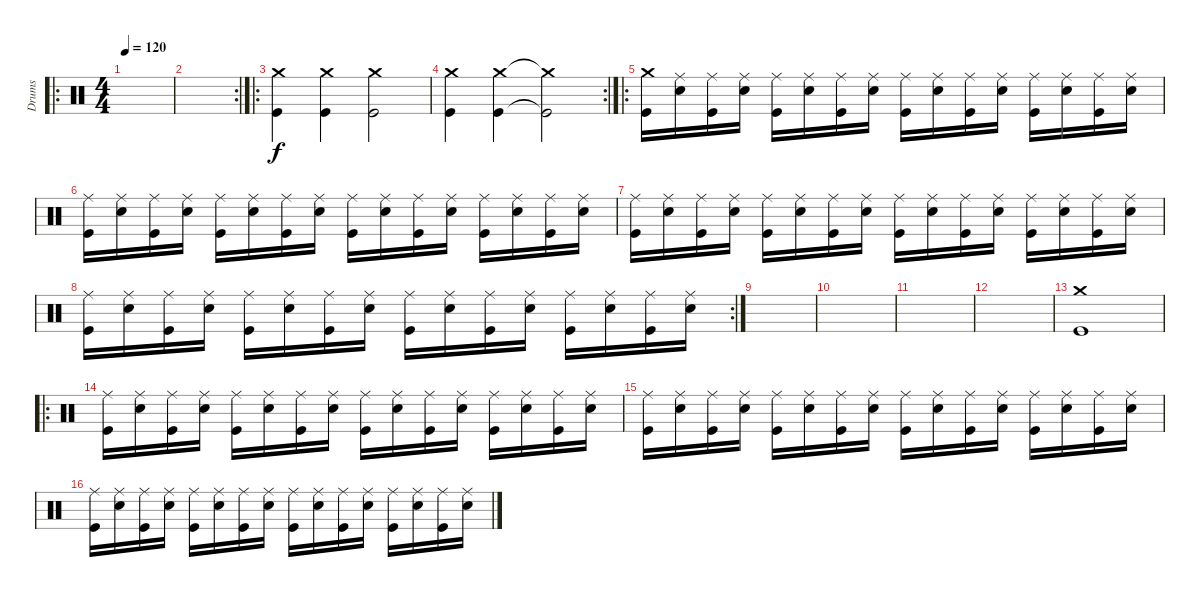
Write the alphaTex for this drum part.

\track ("Drums" "Drums") {instrument percussion}
\staff {score}
\articulation defaults
\ro
\ts (4 4)
\tempo 120
\clef neutral
\ks c
|
\rc 2
|
\ro
("Crash medium (hit)" "Kick (hit)").4 ("Crash medium (hit)" "Kick (hit)").4 ("Crash medium (hit)" "Kick (hit)").2 |
\rc 2
("Crash medium (hit)" "Kick (hit)").4 ("Crash medium (hit)" "Kick (hit)").4 ("Crash medium (hit)"{t} "Kick (hit)"{t}).2 |
\ro
("Crash medium (hit)" "Kick (hit)").16 ("Ride (middle)" "Snare (hit) 2").16 ("Ride (middle)" "Kick (hit)").16 ("Ride (middle)" "Snare (hit) 2").16 ("Ride (middle)" "Kick (hit)").16 ("Ride (middle)" "Snare (hit) 2").16 ("Ride (middle)" "Kick (hit)").16 ("Ride (middle)" "Snare (hit) 2").16 ("Ride (middle)" "Kick (hit)").16 ("Ride (middle)" "Snare (hit) 2").16 ("Ride (middle)" "Kick (hit)").16 ("Ride (middle)" "Snare (hit) 2").16 ("Ride (middle)" "Kick (hit)").16 ("Ride (middle)" "Snare (hit) 2").16 ("Ride (middle)" "Kick (hit)").16 ("Ride (middle)" "Snare (hit) 2").16 |
("Ride (middle)" "Kick (hit)").16 ("Ride (middle)" "Snare (hit) 2").16 ("Ride (middle)" "Kick (hit)").16 ("Ride (middle)" "Snare (hit) 2").16 ("Ride (middle)" "Kick (hit)").16 ("Ride (middle)" "Snare (hit) 2").16 ("Ride (middle)" "Kick (hit)").16 ("Ride (middle)" "Snare (hit) 2").16 ("Ride (middle)" "Kick (hit)").16 ("Ride (middle)" "Snare (hit) 2").16 ("Ride (middle)" "Kick (hit)").16 ("Ride (middle)" "Snare (hit) 2").16 ("Ride (middle)" "Kick (hit)").16 ("Ride (middle)" "Snare (hit) 2").16 ("Ride (middle)" "Kick (hit)").16 ("Ride (middle)" "Snare (hit) 2").16 |
("Ride (middle)" "Kick (hit)").16 ("Ride (middle)" "Snare (hit) 2").16 ("Ride (middle)" "Kick (hit)").16 ("Ride (middle)" "Snare (hit) 2").16 ("Ride (middle)" "Kick (hit)").16 ("Ride (middle)" "Snare (hit) 2").16 ("Ride (middle)" "Kick (hit)").16 ("Ride (middle)" "Snare (hit) 2").16 ("Ride (middle)" "Kick (hit)").16 ("Ride (middle)" "Snare (hit) 2").16 ("Ride (middle)" "Kick (hit)").16 ("Ride (middle)" "Snare (hit) 2").16 ("Ride (middle)" "Kick (hit)").16 ("Ride (middle)" "Snare (hit) 2").16 ("Ride (middle)" "Kick (hit)").16 ("Ride (middle)" "Snare (hit) 2").16 |
\rc 2
("Ride (middle)" "Kick (hit)").16 ("Ride (middle)" "Snare (hit) 2").16 ("Ride (middle)" "Kick (hit)").16 ("Ride (middle)" "Snare (hit) 2").16 ("Ride (middle)" "Kick (hit)").16 ("Ride (middle)" "Snare (hit) 2").16 ("Ride (middle)" "Kick (hit)").16 ("Ride (middle)" "Snare (hit) 2").16 ("Ride (middle)" "Kick (hit)").16 ("Ride (middle)" "Snare (hit) 2").16 ("Ride (middle)" "Kick (hit)").16 ("Ride (middle)" "Snare (hit) 2").16 ("Ride (middle)" "Kick (hit)").16 ("Ride (middle)" "Snare (hit) 2").16 ("Ride (middle)" "Kick (hit)").16 ("Ride (middle)" "Snare (hit) 2").16 |
|
|
|
|
("Crash medium (hit)" "Kick (hit)").1 |
\ro
("Ride (middle)" "Kick (hit)").16 ("Ride (middle)" "Snare (hit) 2").16 ("Ride (middle)" "Kick (hit)").16 ("Ride (middle)" "Snare (hit) 2").16 ("Ride (middle)" "Kick (hit)").16 ("Ride (middle)" "Snare (hit) 2").16 ("Ride (middle)" "Kick (hit)").16 ("Ride (middle)" "Snare (hit) 2").16 ("Ride (middle)" "Kick (hit)").16 ("Ride (middle)" "Snare (hit) 2").16 ("Ride (middle)" "Kick (hit)").16 ("Ride (middle)" "Snare (hit) 2").16 ("Ride (middle)" "Kick (hit)").16 ("Ride (middle)" "Snare (hit) 2").16 ("Ride (middle)" "Kick (hit)").16 ("Ride (middle)" "Snare (hit) 2").16 |
("Ride (middle)" "Kick (hit)").16 ("Ride (middle)" "Snare (hit) 2").16 ("Ride (middle)" "Kick (hit)").16 ("Ride (middle)" "Snare (hit) 2").16 ("Ride (middle)" "Kick (hit)").16 ("Ride (middle)" "Snare (hit) 2").16 ("Ride (middle)" "Kick (hit)").16 ("Ride (middle)" "Snare (hit) 2").16 ("Ride (middle)" "Kick (hit)").16 ("Ride (middle)" "Snare (hit) 2").16 ("Ride (middle)" "Kick (hit)").16 ("Ride (middle)" "Snare (hit) 2").16 ("Ride (middle)" "Kick (hit)").16 ("Ride (middle)" "Snare (hit) 2").16 ("Ride (middle)" "Kick (hit)").16 ("Ride (middle)" "Snare (hit) 2").16 |
("Ride (middle)" "Kick (hit)").16 ("Ride (middle)" "Snare (hit) 2").16 ("Ride (middle)" "Kick (hit)").16 ("Ride (middle)" "Snare (hit) 2").16 ("Ride (middle)" "Kick (hit)").16 ("Ride (middle)" "Snare (hit) 2").16 ("Ride (middle)" "Kick (hit)").16 ("Ride (middle)" "Snare (hit) 2").16 ("Ride (middle)" "Kick (hit)").16 ("Ride (middle)" "Snare (hit) 2").16 ("Ride (middle)" "Kick (hit)").16 ("Ride (middle)" "Snare (hit) 2").16 ("Ride (middle)" "Kick (hit)").16 ("Ride (middle)" "Snare (hit) 2").16 ("Ride (middle)" "Kick (hit)").16 ("Ride (middle)" "Snare (hit) 2").16
